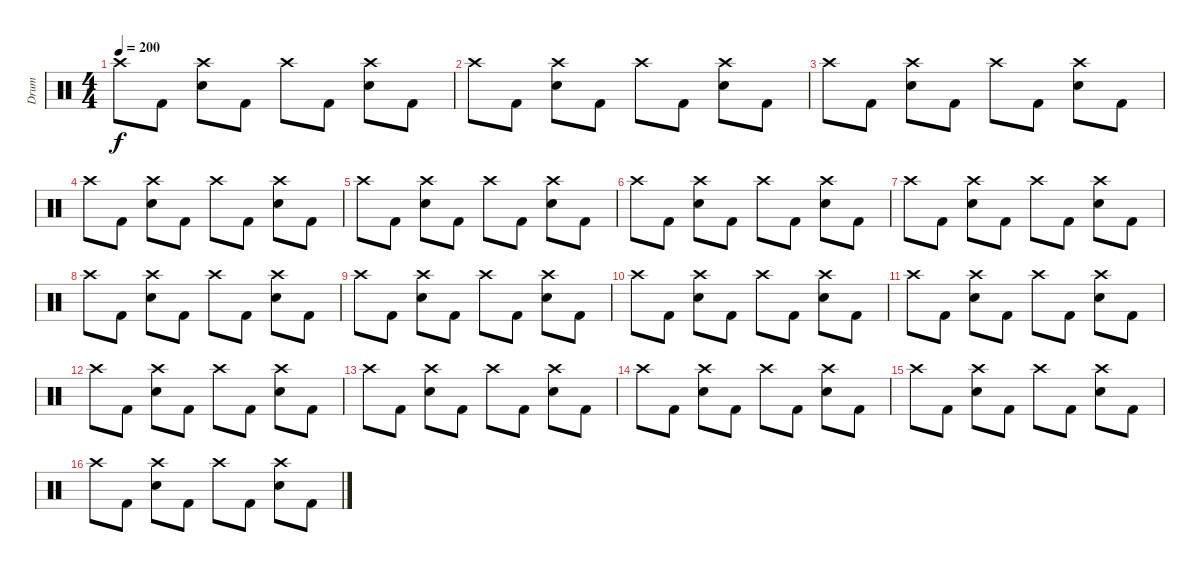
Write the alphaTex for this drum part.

\track ("Drum" "Drum") {instrument percussion}
\staff {score}
\articulation defaults
\ts (4 4)
\tempo 200
\clef neutral
\ks c "Crash high (hit)".8{dy f} "Kick (hit) 2".8
("Crash high (hit)" "Electric Snare (hit)").8 "Kick (hit) 2".8 "Crash high (hit)".8 "Kick (hit) 2".8 ("Crash high (hit)" "Electric Snare (hit)").8 "Kick (hit) 2".8 |
"Crash high (hit)".8 "Kick (hit) 2".8 ("Crash high (hit)" "Electric Snare (hit)").8 "Kick (hit) 2".8 "Crash high (hit)".8 "Kick (hit) 2".8 ("Crash high (hit)" "Electric Snare (hit)").8 "Kick (hit) 2".8 |
"Crash high (hit)".8 "Kick (hit) 2".8 ("Crash high (hit)" "Electric Snare (hit)").8 "Kick (hit) 2".8 "Crash high (hit)".8 "Kick (hit) 2".8 ("Crash high (hit)" "Electric Snare (hit)").8 "Kick (hit) 2".8 |
"Crash high (hit)".8 "Kick (hit) 2".8 ("Crash high (hit)" "Electric Snare (hit)").8 "Kick (hit) 2".8 "Crash high (hit)".8 "Kick (hit) 2".8 ("Crash high (hit)" "Electric Snare (hit)").8 "Kick (hit) 2".8 |
"Crash high (hit)".8 "Kick (hit) 2".8 ("Crash high (hit)" "Electric Snare (hit)").8 "Kick (hit) 2".8 "Crash high (hit)".8 "Kick (hit) 2".8 ("Crash high (hit)" "Electric Snare (hit)").8 "Kick (hit) 2".8 |
"Crash high (hit)".8 "Kick (hit) 2".8 ("Crash high (hit)" "Electric Snare (hit)").8 "Kick (hit) 2".8 "Crash high (hit)".8 "Kick (hit) 2".8 ("Crash high (hit)" "Electric Snare (hit)").8 "Kick (hit) 2".8 |
"Crash high (hit)".8 "Kick (hit) 2".8 ("Crash high (hit)" "Electric Snare (hit)").8 "Kick (hit) 2".8 "Crash high (hit)".8 "Kick (hit) 2".8 ("Crash high (hit)" "Electric Snare (hit)").8 "Kick (hit) 2".8 |
"Crash high (hit)".8 "Kick (hit) 2".8 ("Crash high (hit)" "Electric Snare (hit)").8 "Kick (hit) 2".8 "Crash high (hit)".8 "Kick (hit) 2".8 ("Crash high (hit)" "Electric Snare (hit)").8 "Kick (hit) 2".8 |
"Crash high (hit)".8 "Kick (hit) 2".8 ("Crash high (hit)" "Electric Snare (hit)").8 "Kick (hit) 2".8 "Crash high (hit)".8 "Kick (hit) 2".8 ("Crash high (hit)" "Electric Snare (hit)").8 "Kick (hit) 2".8 |
"Crash high (hit)".8 "Kick (hit) 2".8 ("Crash high (hit)" "Electric Snare (hit)").8 "Kick (hit) 2".8 "Crash high (hit)".8 "Kick (hit) 2".8 ("Crash high (hit)" "Electric Snare (hit)").8 "Kick (hit) 2".8 |
"Crash high (hit)".8 "Kick (hit) 2".8 ("Crash high (hit)" "Electric Snare (hit)").8 "Kick (hit) 2".8 "Crash high (hit)".8 "Kick (hit) 2".8 ("Crash high (hit)" "Electric Snare (hit)").8 "Kick (hit) 2".8 |
"Crash high (hit)".8 "Kick (hit) 2".8 ("Crash high (hit)" "Electric Snare (hit)").8 "Kick (hit) 2".8 "Crash high (hit)".8 "Kick (hit) 2".8 ("Crash high (hit)" "Electric Snare (hit)").8 "Kick (hit) 2".8 |
"Crash high (hit)".8 "Kick (hit) 2".8 ("Crash high (hit)" "Electric Snare (hit)").8 "Kick (hit) 2".8 "Crash high (hit)".8 "Kick (hit) 2".8 ("Crash high (hit)" "Electric Snare (hit)").8 "Kick (hit) 2".8 |
"Crash high (hit)".8 "Kick (hit) 2".8 ("Crash high (hit)" "Electric Snare (hit)").8 "Kick (hit) 2".8 "Crash high (hit)".8 "Kick (hit) 2".8 ("Crash high (hit)" "Electric Snare (hit)").8 "Kick (hit) 2".8 |
"Crash high (hit)".8 "Kick (hit) 2".8 ("Crash high (hit)" "Electric Snare (hit)").8 "Kick (hit) 2".8 "Crash high (hit)".8 "Kick (hit) 2".8 ("Crash high (hit)" "Electric Snare (hit)").8 "Kick (hit) 2".8 |
"Crash high (hit)".8 "Kick (hit) 2".8 ("Crash high (hit)" "Electric Snare (hit)").8 "Kick (hit) 2".8 "Crash high (hit)".8 "Kick (hit) 2".8 ("Crash high (hit)" "Electric Snare (hit)").8 "Kick (hit) 2".8
